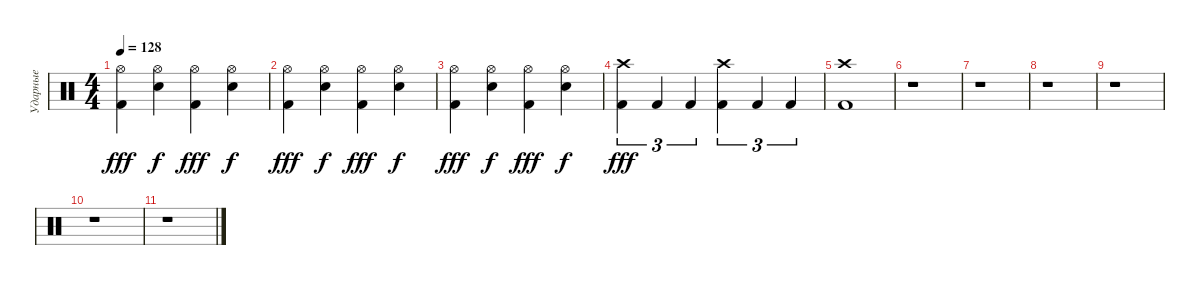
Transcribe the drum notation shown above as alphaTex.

\track ("Ударные" "Ударные") {instrument percussion}
\staff {score}
\articulation defaults
\ts (4 4)
\tempo 128
\clef neutral
\ks c
("Kick (hit) 2" "Hi-Hat (open)").4{dy fff} ("Snare (hit) 2" "Hi-Hat (open)").4{dy f} ("Kick (hit) 2" "Hi-Hat (open)").4{dy fff} ("Snare (hit) 2" "Hi-Hat (open)").4{dy f} |
("Kick (hit) 2" "Hi-Hat (open)").4{dy fff} ("Snare (hit) 2" "Hi-Hat (open)").4{dy f} ("Kick (hit) 2" "Hi-Hat (open)").4{dy fff} ("Snare (hit) 2" "Hi-Hat (open)").4{dy f} |
("Kick (hit) 2" "Hi-Hat (open)").4{dy fff} ("Snare (hit) 2" "Hi-Hat (open)").4{dy f} ("Kick (hit) 2" "Hi-Hat (open)").4{dy fff} ("Snare (hit) 2" "Hi-Hat (open)").4{dy f} |
("Kick (hit) 2" "Crash high (hit)").4{tu (3 2) dy fff} "Kick (hit) 2".4{tu (3 2)} "Kick (hit) 2".4{tu (3 2)} ("Kick (hit) 2" "Crash high (hit)").4{tu (3 2)} "Kick (hit) 2".4{tu (3 2)} "Kick (hit) 2".4{tu (3 2)} |
("Kick (hit) 2" "Crash high (hit)").1 |
r.1 |
r.1 |
r.1 |
r.1 |
r.1 |
r.1
